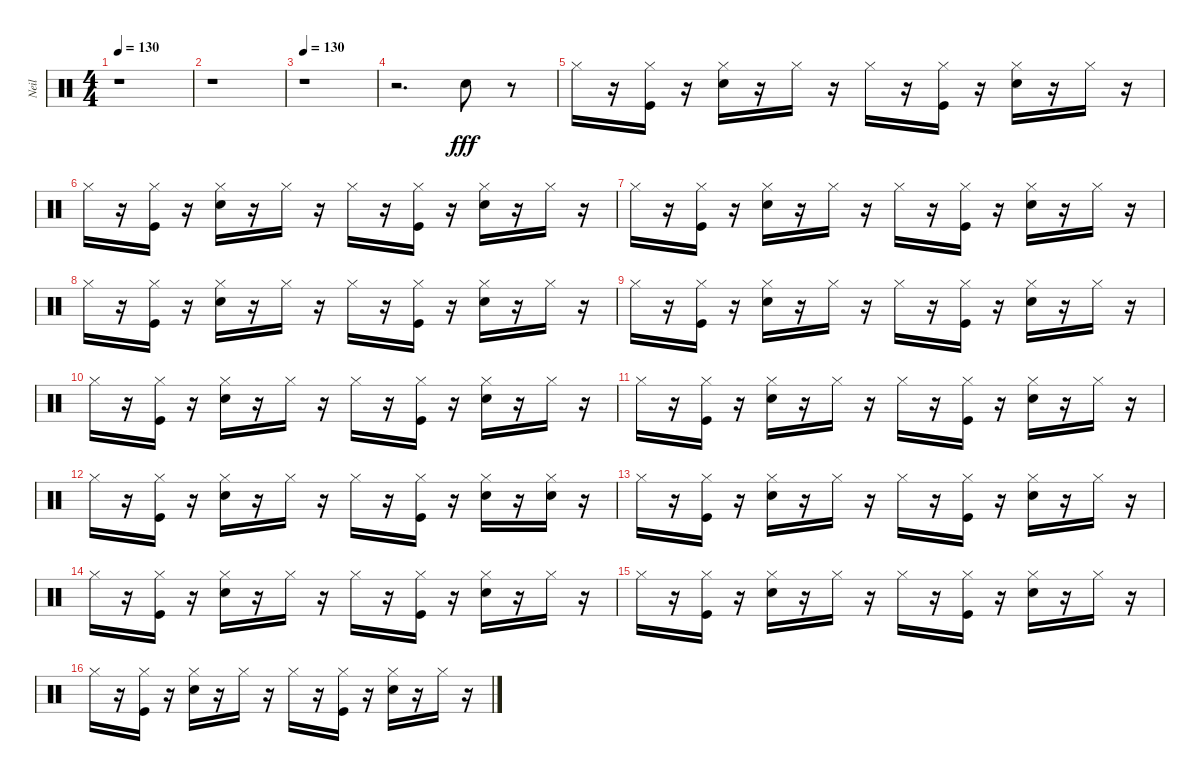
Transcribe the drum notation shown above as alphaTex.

\track ("Neil" "Neil") {instrument percussion}
\staff {score}
\articulation defaults
\ts (4 4)
\tempo 130
\clef neutral
\ks c
r.1{dy fff} |
r.1 |
\tempo 130
r.1 |
r.2{d} "Electric Snare (hit)".8 r.8 |
"Hi-Hat (closed)".16 r.16 ("Kick (hit)" "Hi-Hat (closed)").16 r.16 ("Hi-Hat (closed)" "Electric Snare (hit)").16 r.16 "Hi-Hat (closed)".16 r.16 "Hi-Hat (closed)".16 r.16 ("Hi-Hat (closed)" "Kick (hit)").16 r.16 ("Hi-Hat (closed)" "Electric Snare (hit)").16 r.16 "Hi-Hat (closed)".16 r.16 |
"Hi-Hat (closed)".16 r.16 ("Kick (hit)" "Hi-Hat (closed)").16 r.16 ("Hi-Hat (closed)" "Electric Snare (hit)").16 r.16 "Hi-Hat (closed)".16 r.16 "Hi-Hat (closed)".16 r.16 ("Hi-Hat (closed)" "Kick (hit)").16 r.16 ("Hi-Hat (closed)" "Electric Snare (hit)").16 r.16 "Hi-Hat (closed)".16 r.16 |
"Hi-Hat (closed)".16 r.16 ("Kick (hit)" "Hi-Hat (closed)").16 r.16 ("Hi-Hat (closed)" "Electric Snare (hit)").16 r.16 "Hi-Hat (closed)".16 r.16 "Hi-Hat (closed)".16 r.16 ("Hi-Hat (closed)" "Kick (hit)").16 r.16 ("Hi-Hat (closed)" "Electric Snare (hit)").16 r.16 "Hi-Hat (closed)".16 r.16 |
"Hi-Hat (closed)".16 r.16 ("Kick (hit)" "Hi-Hat (closed)").16 r.16 ("Hi-Hat (closed)" "Electric Snare (hit)").16 r.16 "Hi-Hat (closed)".16 r.16 "Hi-Hat (closed)".16 r.16 ("Hi-Hat (closed)" "Kick (hit)").16 r.16 ("Hi-Hat (closed)" "Electric Snare (hit)").16 r.16 "Hi-Hat (closed)".16 r.16 |
"Hi-Hat (closed)".16 r.16 ("Kick (hit)" "Hi-Hat (closed)").16 r.16 ("Hi-Hat (closed)" "Electric Snare (hit)").16 r.16 "Hi-Hat (closed)".16 r.16 "Hi-Hat (closed)".16 r.16 ("Hi-Hat (closed)" "Kick (hit)").16 r.16 ("Hi-Hat (closed)" "Electric Snare (hit)").16 r.16 "Hi-Hat (closed)".16 r.16 |
"Hi-Hat (closed)".16 r.16 ("Kick (hit)" "Hi-Hat (closed)").16 r.16 ("Hi-Hat (closed)" "Electric Snare (hit)").16 r.16 "Hi-Hat (closed)".16 r.16 "Hi-Hat (closed)".16 r.16 ("Hi-Hat (closed)" "Kick (hit)").16 r.16 ("Hi-Hat (closed)" "Electric Snare (hit)").16 r.16 "Hi-Hat (closed)".16 r.16 |
"Hi-Hat (closed)".16 r.16 ("Kick (hit)" "Hi-Hat (closed)").16 r.16 ("Hi-Hat (closed)" "Electric Snare (hit)").16 r.16 "Hi-Hat (closed)".16 r.16 "Hi-Hat (closed)".16 r.16 ("Hi-Hat (closed)" "Kick (hit)").16 r.16 ("Hi-Hat (closed)" "Electric Snare (hit)").16 r.16 "Hi-Hat (closed)".16 r.16 |
"Hi-Hat (closed)".16 r.16 ("Kick (hit)" "Hi-Hat (closed)").16 r.16 ("Hi-Hat (closed)" "Electric Snare (hit)").16 r.16 "Hi-Hat (closed)".16 r.16 "Hi-Hat (closed)".16 r.16 ("Hi-Hat (closed)" "Kick (hit)").16 r.16 ("Hi-Hat (closed)" "Electric Snare (hit)").16 r.16 ("Hi-Hat (closed)" "Electric Snare (hit)").16 r.16 |
"Hi-Hat (closed)".16 r.16 ("Kick (hit)" "Hi-Hat (closed)").16 r.16 ("Hi-Hat (closed)" "Electric Snare (hit)").16 r.16 "Hi-Hat (closed)".16 r.16 "Hi-Hat (closed)".16 r.16 ("Hi-Hat (closed)" "Kick (hit)").16 r.16 ("Hi-Hat (closed)" "Electric Snare (hit)").16 r.16 "Hi-Hat (closed)".16 r.16 |
"Hi-Hat (closed)".16 r.16 ("Kick (hit)" "Hi-Hat (closed)").16 r.16 ("Hi-Hat (closed)" "Electric Snare (hit)").16 r.16 "Hi-Hat (closed)".16 r.16 "Hi-Hat (closed)".16 r.16 ("Hi-Hat (closed)" "Kick (hit)").16 r.16 ("Hi-Hat (closed)" "Electric Snare (hit)").16 r.16 "Hi-Hat (closed)".16 r.16 |
"Hi-Hat (closed)".16 r.16 ("Kick (hit)" "Hi-Hat (closed)").16 r.16 ("Hi-Hat (closed)" "Electric Snare (hit)").16 r.16 "Hi-Hat (closed)".16 r.16 "Hi-Hat (closed)".16 r.16 ("Hi-Hat (closed)" "Kick (hit)").16 r.16 ("Hi-Hat (closed)" "Electric Snare (hit)").16 r.16 "Hi-Hat (closed)".16 r.16 |
"Hi-Hat (closed)".16 r.16 ("Kick (hit)" "Hi-Hat (closed)").16 r.16 ("Hi-Hat (closed)" "Electric Snare (hit)").16 r.16 "Hi-Hat (closed)".16 r.16 "Hi-Hat (closed)".16 r.16 ("Hi-Hat (closed)" "Kick (hit)").16 r.16 ("Hi-Hat (closed)" "Electric Snare (hit)").16 r.16 "Hi-Hat (closed)".16 r.16
